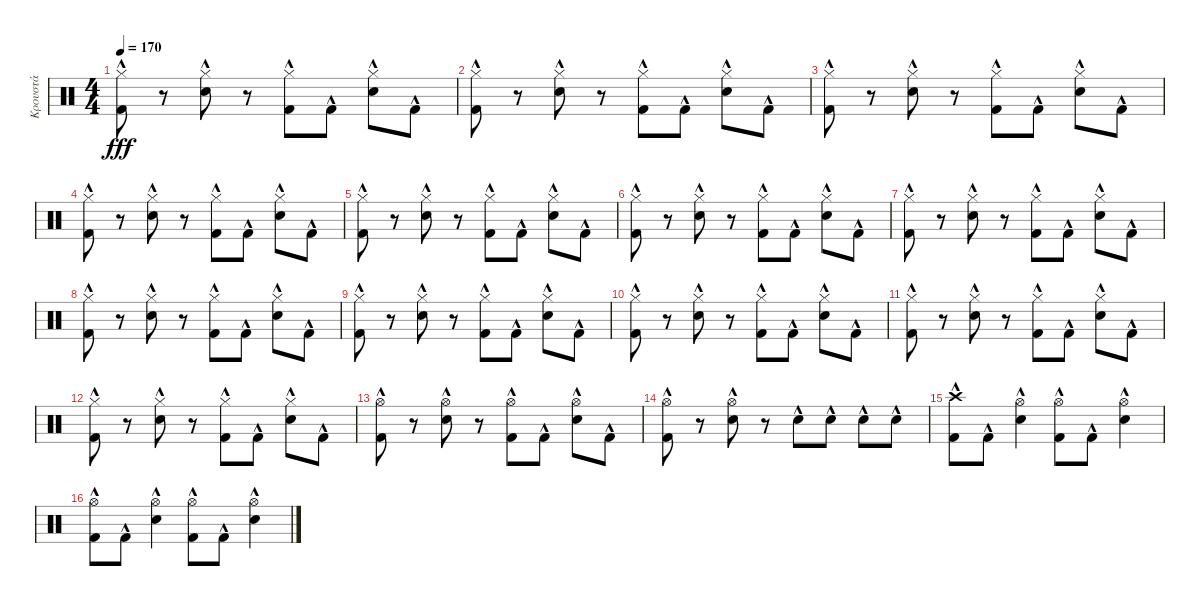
\track ("Κρουστά" "Κρουστά") {instrument percussion}
\staff {score}
\articulation defaults
\ts (4 4)
\tempo 170
\clef neutral
\ks c
("Hi-Hat (closed)" "Kick (hit) 2"{hac}).8{dy fff} r.8 ("Hi-Hat (closed)" "Electric Snare (hit)"{hac}).8 r.8 ("Hi-Hat (closed)" "Kick (hit) 2"{hac}).8 "Kick (hit) 2"{hac}.8 ("Hi-Hat (closed)" "Electric Snare (hit)"{hac}).8 "Kick (hit) 2"{hac}.8 |
("Hi-Hat (closed)" "Kick (hit) 2"{hac}).8 r.8 ("Hi-Hat (closed)" "Electric Snare (hit)"{hac}).8 r.8 ("Hi-Hat (closed)" "Kick (hit) 2"{hac}).8 "Kick (hit) 2"{hac}.8 ("Hi-Hat (closed)" "Electric Snare (hit)"{hac}).8 "Kick (hit) 2"{hac}.8 |
("Hi-Hat (closed)" "Kick (hit) 2"{hac}).8 r.8 ("Hi-Hat (closed)" "Electric Snare (hit)"{hac}).8 r.8 ("Hi-Hat (closed)" "Kick (hit) 2"{hac}).8 "Kick (hit) 2"{hac}.8 ("Hi-Hat (closed)" "Electric Snare (hit)"{hac}).8 "Kick (hit) 2"{hac}.8 |
("Hi-Hat (closed)" "Kick (hit) 2"{hac}).8 r.8 ("Hi-Hat (closed)" "Electric Snare (hit)"{hac}).8 r.8 ("Hi-Hat (closed)" "Kick (hit) 2"{hac}).8 "Kick (hit) 2"{hac}.8 ("Hi-Hat (closed)" "Electric Snare (hit)"{hac}).8 "Kick (hit) 2"{hac}.8 |
("Hi-Hat (closed)" "Kick (hit) 2"{hac}).8 r.8 ("Hi-Hat (closed)" "Electric Snare (hit)"{hac}).8 r.8 ("Hi-Hat (closed)" "Kick (hit) 2"{hac}).8 "Kick (hit) 2"{hac}.8 ("Hi-Hat (closed)" "Electric Snare (hit)"{hac}).8 "Kick (hit) 2"{hac}.8 |
("Hi-Hat (closed)" "Kick (hit) 2"{hac}).8 r.8 ("Hi-Hat (closed)" "Electric Snare (hit)"{hac}).8 r.8 ("Hi-Hat (closed)" "Kick (hit) 2"{hac}).8 "Kick (hit) 2"{hac}.8 ("Hi-Hat (closed)" "Electric Snare (hit)"{hac}).8 "Kick (hit) 2"{hac}.8 |
("Hi-Hat (closed)" "Kick (hit) 2"{hac}).8 r.8 ("Hi-Hat (closed)" "Electric Snare (hit)"{hac}).8 r.8 ("Hi-Hat (closed)" "Kick (hit) 2"{hac}).8 "Kick (hit) 2"{hac}.8 ("Hi-Hat (closed)" "Electric Snare (hit)"{hac}).8 "Kick (hit) 2"{hac}.8 |
("Hi-Hat (closed)" "Kick (hit) 2"{hac}).8 r.8 ("Hi-Hat (closed)" "Electric Snare (hit)"{hac}).8 r.8 ("Hi-Hat (closed)" "Kick (hit) 2"{hac}).8 "Kick (hit) 2"{hac}.8 ("Hi-Hat (closed)" "Electric Snare (hit)"{hac}).8 "Kick (hit) 2"{hac}.8 |
("Hi-Hat (closed)" "Kick (hit) 2"{hac}).8 r.8 ("Hi-Hat (closed)" "Electric Snare (hit)"{hac}).8 r.8 ("Hi-Hat (closed)" "Kick (hit) 2"{hac}).8 "Kick (hit) 2"{hac}.8 ("Hi-Hat (closed)" "Electric Snare (hit)"{hac}).8 "Kick (hit) 2"{hac}.8 |
("Hi-Hat (closed)" "Kick (hit) 2"{hac}).8 r.8 ("Hi-Hat (closed)" "Electric Snare (hit)"{hac}).8 r.8 ("Hi-Hat (closed)" "Kick (hit) 2"{hac}).8 "Kick (hit) 2"{hac}.8 ("Hi-Hat (closed)" "Electric Snare (hit)"{hac}).8 "Kick (hit) 2"{hac}.8 |
("Hi-Hat (closed)" "Kick (hit) 2"{hac}).8 r.8 ("Hi-Hat (closed)" "Electric Snare (hit)"{hac}).8 r.8 ("Hi-Hat (closed)" "Kick (hit) 2"{hac}).8 "Kick (hit) 2"{hac}.8 ("Hi-Hat (closed)" "Electric Snare (hit)"{hac}).8 "Kick (hit) 2"{hac}.8 |
("Hi-Hat (closed)" "Kick (hit) 2"{hac}).8 r.8 ("Hi-Hat (closed)" "Electric Snare (hit)"{hac}).8 r.8 ("Hi-Hat (closed)" "Kick (hit) 2"{hac}).8 "Kick (hit) 2"{hac}.8 ("Hi-Hat (closed)" "Electric Snare (hit)"{hac}).8 "Kick (hit) 2"{hac}.8 |
("Hi-Hat (open)" "Kick (hit) 2"{hac}).8 r.8 ("Hi-Hat (open)" "Electric Snare (hit)"{hac}).8 r.8 ("Hi-Hat (open)" "Kick (hit) 2"{hac}).8 "Kick (hit) 2"{hac}.8 ("Hi-Hat (open)" "Electric Snare (hit)"{hac}).8 "Kick (hit) 2"{hac}.8 |
("Hi-Hat (open)" "Kick (hit) 2"{hac}).8 r.8 ("Hi-Hat (open)" "Electric Snare (hit)"{hac}).8 r.8 "Electric Snare (hit)"{hac}.8 "Electric Snare (hit)"{hac}.8 "Electric Snare (hit)"{hac}.8 "Electric Snare (hit)"{hac}.8 |
("Kick (hit) 2"{hac} "Crash high (hit)").8{volume 13} "Kick (hit) 2"{hac}.8 ("Electric Snare (hit)"{hac} "Hi-Hat (open)").4 ("Kick (hit) 2"{hac} "Hi-Hat (open)").8 "Kick (hit) 2"{hac}.8 ("Electric Snare (hit)"{hac} "Hi-Hat (open)").4 |
("Kick (hit) 2"{hac} "Hi-Hat (open)").8 "Kick (hit) 2"{hac}.8 ("Electric Snare (hit)"{hac} "Hi-Hat (open)").4 ("Kick (hit) 2"{hac} "Hi-Hat (open)").8 "Kick (hit) 2"{hac}.8 ("Electric Snare (hit)"{hac} "Hi-Hat (open)").4
